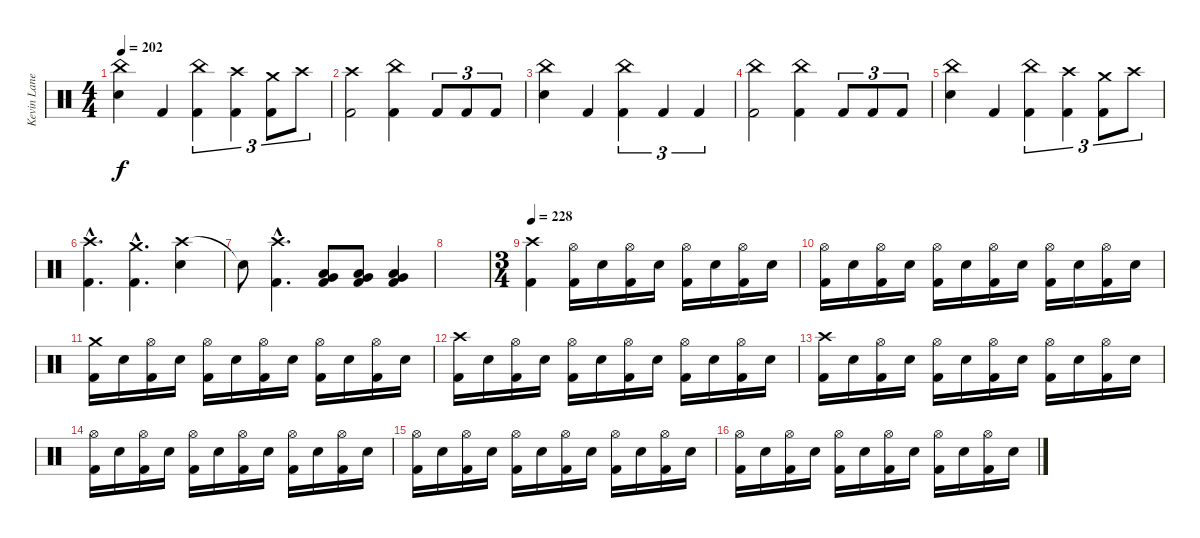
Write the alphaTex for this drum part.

\track ("Kevin Lane (Drums)" "Kevin Lane") {instrument percussion}
\staff {score}
\articulation defaults
\ts (4 4)
\tempo 202
\clef neutral
\ks c
("China (hit)" "Snare (hit) 2").4{dy f} "Kick (hit) 2".4 ("China (hit)" "Kick (hit) 2").4{tu (3 2)} ("Crash high (hit)" "Kick (hit) 2").4{tu (3 2)} ("Crash medium (hit)" "Kick (hit) 2").8{tu (3 2)} "Crash high (hit)".8{tu (3 2)} |
("Crash high (hit)" "Kick (hit) 2").2 ("China (hit)" "Kick (hit) 2").4 "Kick (hit) 2".8{tu (3 2)} "Kick (hit) 2".8{tu (3 2)} "Kick (hit) 2".8{tu (3 2)} |
("China (hit)" "Snare (hit) 2").4 "Kick (hit) 2".4 ("China (hit)" "Kick (hit) 2").4{tu (3 2)} "Kick (hit) 2".4{tu (3 2)} "Kick (hit) 2".4{tu (3 2)} |
("China (hit)" "Kick (hit) 2").2 ("China (hit)" "Kick (hit) 2").4 "Kick (hit) 2".8{tu (3 2)} "Kick (hit) 2".8{tu (3 2)} "Kick (hit) 2".8{tu (3 2)} |
("China (hit)" "Snare (hit) 2").4 "Kick (hit) 2".4 ("China (hit)" "Kick (hit) 2").4{tu (3 2)} ("Crash high (hit)" "Kick (hit) 2").4{tu (3 2)} ("Crash medium (hit)" "Kick (hit) 2").8{tu (3 2)} "Crash high (hit)".8{tu (3 2)} |
("Crash high (hit)"{hac} "Kick (hit) 2"{hac}).4{d} ("Crash medium (hit)"{hac} "Kick (hit) 2"{hac}).4{d} ("Crash high (hit)" "Snare (hit) 2").4 |
"Snare (hit)"{t}.8 ("Crash high (hit)"{hac} "Kick (hit) 2"{hac}).4{d} ("Low Floor Tom (hit)" "Very Low Tom (hit)" "Kick (hit) 2").8 ("Low Floor Tom (hit)" "Very Low Tom (hit)" "Kick (hit) 2").8 ("Low Floor Tom (hit)" "Very Low Tom (hit)" "Kick (hit) 2").4 |
|
\ts (3 4)
\tempo 228
("Crash high (hit)" "Kick (hit) 2").4 ("Hi-Hat (open)" "Kick (hit) 2").16 "Snare (hit) 2".16 ("Hi-Hat (open)" "Kick (hit) 2").16 "Snare (hit) 2".16 ("Hi-Hat (open)" "Kick (hit) 2").16 "Snare (hit) 2".16 ("Hi-Hat (open)" "Kick (hit) 2").16 "Snare (hit) 2".16 |
("Hi-Hat (open)" "Kick (hit) 2").16 "Snare (hit) 2".16 ("Hi-Hat (open)" "Kick (hit) 2").16 "Snare (hit) 2".16 ("Hi-Hat (open)" "Kick (hit) 2").16 "Snare (hit) 2".16 ("Hi-Hat (open)" "Kick (hit) 2").16 "Snare (hit) 2".16 ("Hi-Hat (open)" "Kick (hit) 2").16 "Snare (hit) 2".16 ("Hi-Hat (open)" "Kick (hit) 2").16 "Snare (hit) 2".16 |
("Crash medium (hit)" "Kick (hit) 2").16 "Snare (hit) 2".16 ("Hi-Hat (open)" "Kick (hit) 2").16 "Snare (hit) 2".16 ("Hi-Hat (open)" "Kick (hit) 2").16 "Snare (hit) 2".16 ("Hi-Hat (open)" "Kick (hit) 2").16 "Snare (hit) 2".16 ("Hi-Hat (open)" "Kick (hit) 2").16 "Snare (hit) 2".16 ("Hi-Hat (open)" "Kick (hit) 2").16 "Snare (hit) 2".16 |
("Crash high (hit)" "Kick (hit) 2").16 "Snare (hit) 2".16 ("Hi-Hat (open)" "Kick (hit) 2").16 "Snare (hit) 2".16 ("Hi-Hat (open)" "Kick (hit) 2").16 "Snare (hit) 2".16 ("Hi-Hat (open)" "Kick (hit) 2").16 "Snare (hit) 2".16 ("Hi-Hat (open)" "Kick (hit) 2").16 "Snare (hit) 2".16 ("Hi-Hat (open)" "Kick (hit) 2").16 "Snare (hit) 2".16 |
("Crash high (hit)" "Kick (hit) 2").16 "Snare (hit) 2".16 ("Hi-Hat (open)" "Kick (hit) 2").16 "Snare (hit) 2".16 ("Hi-Hat (open)" "Kick (hit) 2").16 "Snare (hit) 2".16 ("Hi-Hat (open)" "Kick (hit) 2").16 "Snare (hit) 2".16 ("Hi-Hat (open)" "Kick (hit) 2").16 "Snare (hit) 2".16 ("Hi-Hat (open)" "Kick (hit) 2").16 "Snare (hit) 2".16 |
("Hi-Hat (open)" "Kick (hit) 2").16 "Snare (hit) 2".16 ("Hi-Hat (open)" "Kick (hit) 2").16 "Snare (hit) 2".16 ("Hi-Hat (open)" "Kick (hit) 2").16 "Snare (hit) 2".16 ("Hi-Hat (open)" "Kick (hit) 2").16 "Snare (hit) 2".16 ("Hi-Hat (open)" "Kick (hit) 2").16 "Snare (hit) 2".16 ("Hi-Hat (open)" "Kick (hit) 2").16 "Snare (hit) 2".16 |
("Hi-Hat (open)" "Kick (hit) 2").16 "Snare (hit) 2".16 ("Hi-Hat (open)" "Kick (hit) 2").16 "Snare (hit) 2".16 ("Hi-Hat (open)" "Kick (hit) 2").16 "Snare (hit) 2".16 ("Hi-Hat (open)" "Kick (hit) 2").16 "Snare (hit) 2".16 ("Hi-Hat (open)" "Kick (hit) 2").16 "Snare (hit) 2".16 ("Hi-Hat (open)" "Kick (hit) 2").16 "Snare (hit) 2".16 |
("Hi-Hat (open)" "Kick (hit) 2").16 "Snare (hit) 2".16 ("Hi-Hat (open)" "Kick (hit) 2").16 "Snare (hit) 2".16 ("Hi-Hat (open)" "Kick (hit) 2").16 "Snare (hit) 2".16 ("Hi-Hat (open)" "Kick (hit) 2").16 "Snare (hit) 2".16 ("Hi-Hat (open)" "Kick (hit) 2").16 "Snare (hit) 2".16 ("Hi-Hat (open)" "Kick (hit) 2").16 "Snare (hit) 2".16
